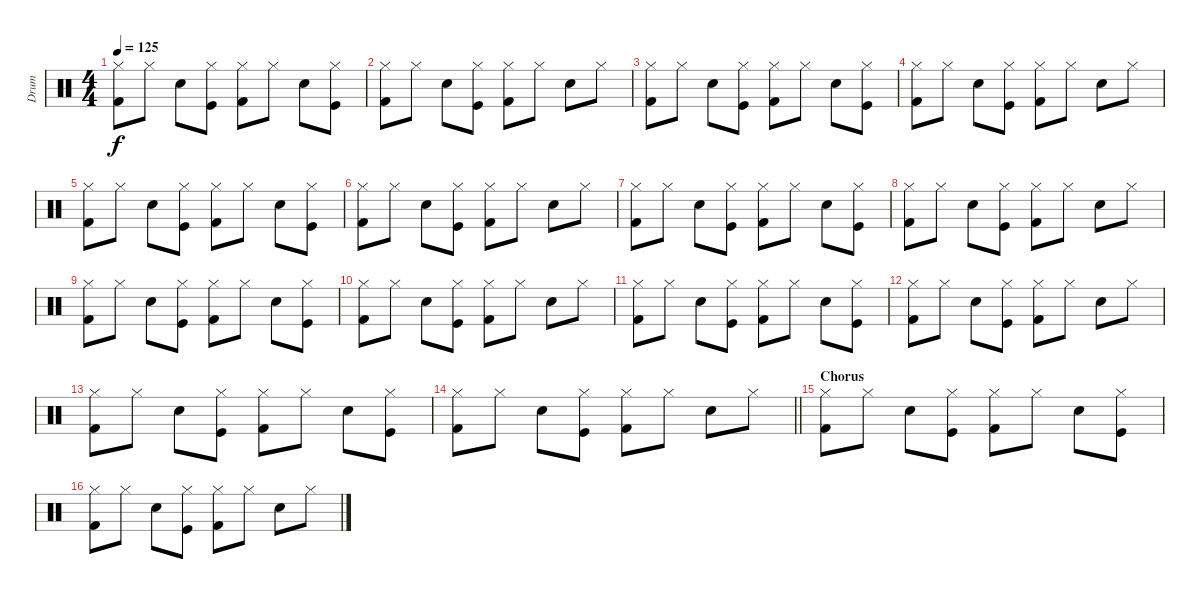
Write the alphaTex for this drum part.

\track ("Drum" "Drum") {instrument percussion}
\staff {score}
\articulation defaults
\ts (4 4)
\tempo 125
\clef neutral
\ks c
("Hi-Hat (closed)" "Kick (hit) 2").8{dy f} "Hi-Hat (closed)".8 "Electric Snare (hit)".8 ("Hi-Hat (closed)" "Kick (hit)").8 ("Hi-Hat (closed)" "Kick (hit) 2").8 "Hi-Hat (closed)".8 "Electric Snare (hit)".8 ("Hi-Hat (closed)" "Kick (hit)").8 |
("Hi-Hat (closed)" "Kick (hit) 2").8 "Hi-Hat (closed)".8 "Electric Snare (hit)".8 ("Hi-Hat (closed)" "Kick (hit)").8 ("Hi-Hat (closed)" "Kick (hit) 2").8 "Hi-Hat (closed)".8 "Electric Snare (hit)".8 "Hi-Hat (closed)".8 |
("Hi-Hat (closed)" "Kick (hit) 2").8 "Hi-Hat (closed)".8 "Electric Snare (hit)".8 ("Hi-Hat (closed)" "Kick (hit)").8 ("Hi-Hat (closed)" "Kick (hit) 2").8 "Hi-Hat (closed)".8 "Electric Snare (hit)".8 ("Hi-Hat (closed)" "Kick (hit)").8 |
("Hi-Hat (closed)" "Kick (hit) 2").8 "Hi-Hat (closed)".8 "Electric Snare (hit)".8 ("Hi-Hat (closed)" "Kick (hit)").8 ("Hi-Hat (closed)" "Kick (hit) 2").8 "Hi-Hat (closed)".8 "Electric Snare (hit)".8 "Hi-Hat (closed)".8 |
("Hi-Hat (closed)" "Kick (hit) 2").8 "Hi-Hat (closed)".8 "Electric Snare (hit)".8 ("Hi-Hat (closed)" "Kick (hit)").8 ("Hi-Hat (closed)" "Kick (hit) 2").8 "Hi-Hat (closed)".8 "Electric Snare (hit)".8 ("Hi-Hat (closed)" "Kick (hit)").8 |
("Hi-Hat (closed)" "Kick (hit) 2").8 "Hi-Hat (closed)".8 "Electric Snare (hit)".8 ("Hi-Hat (closed)" "Kick (hit)").8 ("Hi-Hat (closed)" "Kick (hit) 2").8 "Hi-Hat (closed)".8 "Electric Snare (hit)".8 "Hi-Hat (closed)".8 |
("Hi-Hat (closed)" "Kick (hit) 2").8 "Hi-Hat (closed)".8 "Electric Snare (hit)".8 ("Hi-Hat (closed)" "Kick (hit)").8 ("Hi-Hat (closed)" "Kick (hit) 2").8 "Hi-Hat (closed)".8 "Electric Snare (hit)".8 ("Hi-Hat (closed)" "Kick (hit)").8 |
("Hi-Hat (closed)" "Kick (hit) 2").8 "Hi-Hat (closed)".8 "Electric Snare (hit)".8 ("Hi-Hat (closed)" "Kick (hit)").8 ("Hi-Hat (closed)" "Kick (hit) 2").8 "Hi-Hat (closed)".8 "Electric Snare (hit)".8 "Hi-Hat (closed)".8 |
("Hi-Hat (closed)" "Kick (hit) 2").8 "Hi-Hat (closed)".8 "Electric Snare (hit)".8 ("Hi-Hat (closed)" "Kick (hit)").8 ("Hi-Hat (closed)" "Kick (hit) 2").8 "Hi-Hat (closed)".8 "Electric Snare (hit)".8 ("Hi-Hat (closed)" "Kick (hit)").8 |
("Hi-Hat (closed)" "Kick (hit) 2").8 "Hi-Hat (closed)".8 "Electric Snare (hit)".8 ("Hi-Hat (closed)" "Kick (hit)").8 ("Hi-Hat (closed)" "Kick (hit) 2").8 "Hi-Hat (closed)".8 "Electric Snare (hit)".8 "Hi-Hat (closed)".8 |
("Hi-Hat (closed)" "Kick (hit) 2").8 "Hi-Hat (closed)".8 "Electric Snare (hit)".8 ("Hi-Hat (closed)" "Kick (hit)").8 ("Hi-Hat (closed)" "Kick (hit) 2").8 "Hi-Hat (closed)".8 "Electric Snare (hit)".8 ("Hi-Hat (closed)" "Kick (hit)").8 |
("Hi-Hat (closed)" "Kick (hit) 2").8 "Hi-Hat (closed)".8 "Electric Snare (hit)".8 ("Hi-Hat (closed)" "Kick (hit)").8 ("Hi-Hat (closed)" "Kick (hit) 2").8 "Hi-Hat (closed)".8 "Electric Snare (hit)".8 "Hi-Hat (closed)".8 |
("Hi-Hat (closed)" "Kick (hit) 2").8 "Hi-Hat (closed)".8 "Electric Snare (hit)".8 ("Hi-Hat (closed)" "Kick (hit)").8 ("Hi-Hat (closed)" "Kick (hit) 2").8 "Hi-Hat (closed)".8 "Electric Snare (hit)".8 ("Hi-Hat (closed)" "Kick (hit)").8 |
\barLineRight lightlight
("Hi-Hat (closed)" "Kick (hit) 2").8 "Hi-Hat (closed)".8 "Electric Snare (hit)".8 ("Hi-Hat (closed)" "Kick (hit)").8 ("Hi-Hat (closed)" "Kick (hit) 2").8 "Hi-Hat (closed)".8 "Electric Snare (hit)".8 "Hi-Hat (closed)".8 |
\section ("" "Chorus")
("Hi-Hat (closed)" "Kick (hit) 2").8 "Hi-Hat (closed)".8 "Electric Snare (hit)".8 ("Hi-Hat (closed)" "Kick (hit)").8 ("Hi-Hat (closed)" "Kick (hit) 2").8 "Hi-Hat (closed)".8 "Electric Snare (hit)".8 ("Hi-Hat (closed)" "Kick (hit)").8 |
("Hi-Hat (closed)" "Kick (hit) 2").8 "Hi-Hat (closed)".8 "Electric Snare (hit)".8 ("Hi-Hat (closed)" "Kick (hit)").8 ("Hi-Hat (closed)" "Kick (hit) 2").8 "Hi-Hat (closed)".8 "Electric Snare (hit)".8 "Hi-Hat (closed)".8
